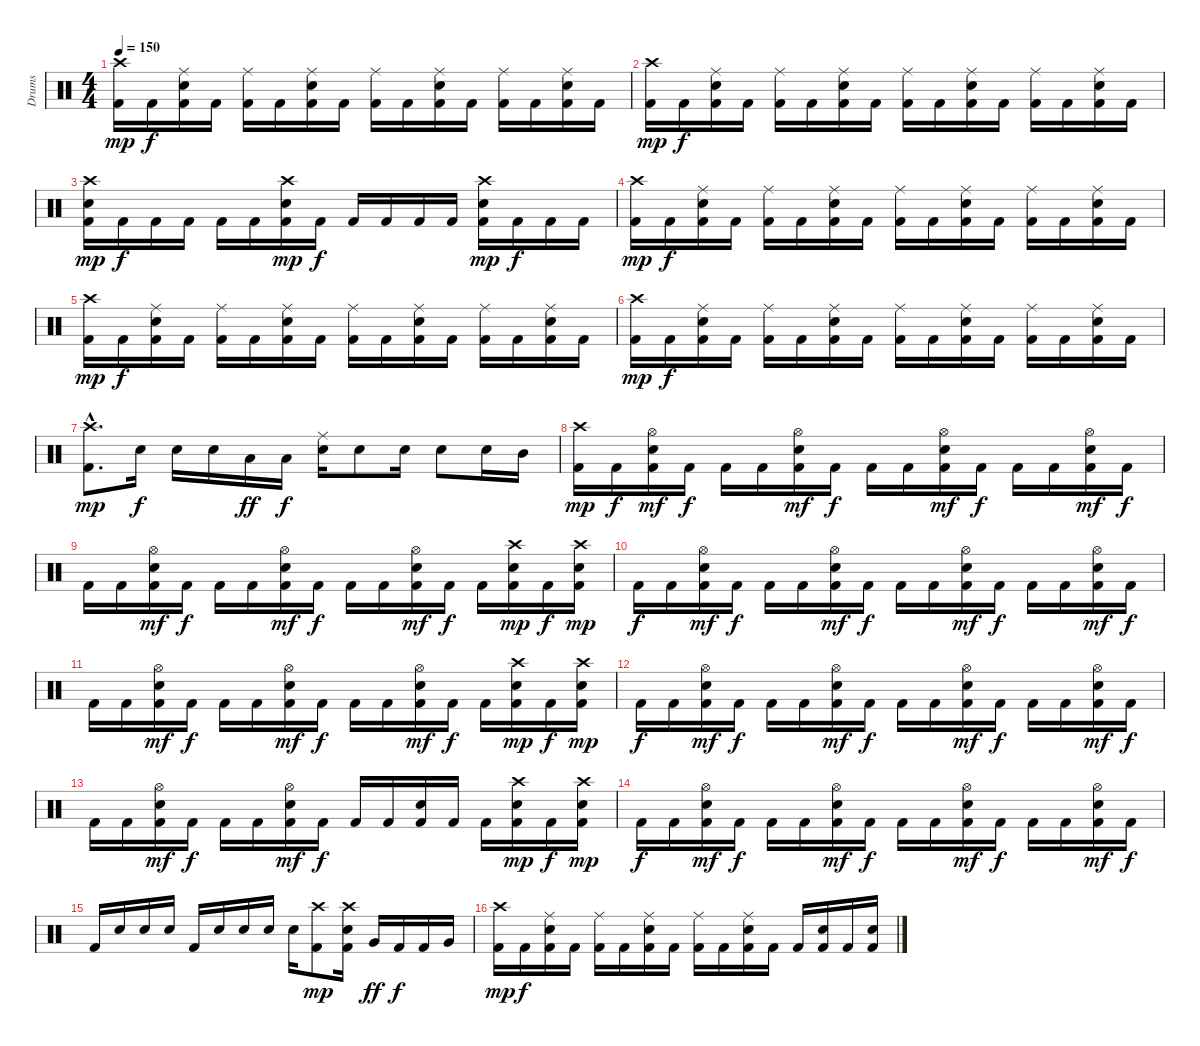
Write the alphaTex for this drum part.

\track ("Drums" "Drums") {instrument percussion}
\staff {score}
\articulation defaults
\ts (4 4)
\tempo 150
\clef neutral
\ks c
("Crash high (hit)" "Kick (hit) 2").16{dy mp} "Kick (hit) 2".16{dy f} ("Ride (middle)" "Electric Snare (hit)" "Kick (hit) 2").16 "Kick (hit) 2".16 ("Ride (middle)" "Kick (hit) 2").16 "Kick (hit) 2".16 ("Ride (middle)" "Electric Snare (hit)" "Kick (hit) 2").16 "Kick (hit) 2".16 ("Ride (middle)" "Kick (hit) 2").16 "Kick (hit) 2".16 ("Ride (middle)" "Electric Snare (hit)" "Kick (hit) 2").16 "Kick (hit) 2".16 ("Ride (middle)" "Kick (hit) 2").16 "Kick (hit) 2".16 ("Ride (middle)" "Electric Snare (hit)" "Kick (hit) 2").16 "Kick (hit) 2".16 |
("Crash high (hit)" "Kick (hit) 2").16{dy mp} "Kick (hit) 2".16{dy f} ("Ride (middle)" "Electric Snare (hit)" "Kick (hit) 2").16 "Kick (hit) 2".16 ("Ride (middle)" "Kick (hit) 2").16 "Kick (hit) 2".16 ("Ride (middle)" "Electric Snare (hit)" "Kick (hit) 2").16 "Kick (hit) 2".16 ("Ride (middle)" "Kick (hit) 2").16 "Kick (hit) 2".16 ("Ride (middle)" "Electric Snare (hit)" "Kick (hit) 2").16 "Kick (hit) 2".16 ("Ride (middle)" "Kick (hit) 2").16 "Kick (hit) 2".16 ("Ride (middle)" "Electric Snare (hit)" "Kick (hit) 2").16 "Kick (hit) 2".16 |
("Crash high (hit)" "Electric Snare (hit)" "Kick (hit) 2").16{dy mp} "Kick (hit) 2".16{dy f} "Kick (hit) 2".16 "Kick (hit) 2".16 "Kick (hit) 2".16 "Kick (hit) 2".16 ("Crash high (hit)" "Electric Snare (hit)" "Kick (hit) 2").16{dy mp} "Kick (hit) 2".16{dy f} "Kick (hit) 2".16 "Kick (hit) 2".16 "Kick (hit) 2".16 "Kick (hit) 2".16 ("Crash high (hit)" "Electric Snare (hit)" "Kick (hit) 2").16{dy mp} "Kick (hit) 2".16{dy f} "Kick (hit) 2".16 "Kick (hit) 2".16 |
("Crash high (hit)" "Kick (hit) 2").16{dy mp} "Kick (hit) 2".16{dy f} ("Ride (middle)" "Electric Snare (hit)" "Kick (hit) 2").16 "Kick (hit) 2".16 ("Ride (middle)" "Kick (hit) 2").16 "Kick (hit) 2".16 ("Ride (middle)" "Electric Snare (hit)" "Kick (hit) 2").16 "Kick (hit) 2".16 ("Ride (middle)" "Kick (hit) 2").16 "Kick (hit) 2".16 ("Ride (middle)" "Electric Snare (hit)" "Kick (hit) 2").16 "Kick (hit) 2".16 ("Ride (middle)" "Kick (hit) 2").16 "Kick (hit) 2".16 ("Ride (middle)" "Electric Snare (hit)" "Kick (hit) 2").16 "Kick (hit) 2".16 |
("Crash high (hit)" "Kick (hit) 2").16{dy mp} "Kick (hit) 2".16{dy f} ("Ride (middle)" "Electric Snare (hit)" "Kick (hit) 2").16 "Kick (hit) 2".16 ("Ride (middle)" "Kick (hit) 2").16 "Kick (hit) 2".16 ("Ride (middle)" "Electric Snare (hit)" "Kick (hit) 2").16 "Kick (hit) 2".16 ("Ride (middle)" "Kick (hit) 2").16 "Kick (hit) 2".16 ("Ride (middle)" "Electric Snare (hit)" "Kick (hit) 2").16 "Kick (hit) 2".16 ("Ride (middle)" "Kick (hit) 2").16 "Kick (hit) 2".16 ("Ride (middle)" "Electric Snare (hit)" "Kick (hit) 2").16 "Kick (hit) 2".16 |
("Crash high (hit)" "Kick (hit) 2").16{dy mp} "Kick (hit) 2".16{dy f} ("Ride (middle)" "Electric Snare (hit)" "Kick (hit) 2").16 "Kick (hit) 2".16 ("Ride (middle)" "Kick (hit) 2").16 "Kick (hit) 2".16 ("Ride (middle)" "Electric Snare (hit)" "Kick (hit) 2").16 "Kick (hit) 2".16 ("Ride (middle)" "Kick (hit) 2").16 "Kick (hit) 2".16 ("Ride (middle)" "Electric Snare (hit)" "Kick (hit) 2").16 "Kick (hit) 2".16 ("Ride (middle)" "Kick (hit) 2").16 "Kick (hit) 2".16 ("Ride (middle)" "Electric Snare (hit)" "Kick (hit) 2").16 "Kick (hit) 2".16 |
("Crash high (hit)"{hac} "Kick (hit) 2"{hac}).8{d dy mp} "Electric Snare (hit)".16{dy f} "Electric Snare (hit)".16 "Electric Snare (hit)".16 "Low Tom (hit)".16{dy ff} "Low Tom (hit)".16{dy f} ("Ride (middle)" "Electric Snare (hit)").16 "Electric Snare (hit)".8 "Electric Snare (hit)".16 "Electric Snare (hit)".8 "Electric Snare (hit)".16 "Mid Tom (hit)".16 |
("Crash high (hit)" "Kick (hit) 2").16{dy mp} "Kick (hit) 2".16{dy f} ("Hi-Hat (open)" "Electric Snare (hit)" "Kick (hit) 2").16{dy mf} "Kick (hit) 2".16{dy f} "Kick (hit) 2".16 "Kick (hit) 2".16 ("Hi-Hat (open)" "Electric Snare (hit)" "Kick (hit) 2").16{dy mf} "Kick (hit) 2".16{dy f} "Kick (hit) 2".16 "Kick (hit) 2".16 ("Hi-Hat (open)" "Electric Snare (hit)" "Kick (hit) 2").16{dy mf} "Kick (hit) 2".16{dy f} "Kick (hit) 2".16 "Kick (hit) 2".16 ("Hi-Hat (open)" "Electric Snare (hit)" "Kick (hit) 2").16{dy mf} "Kick (hit) 2".16{dy f} |
"Kick (hit) 2".16 "Kick (hit) 2".16 ("Hi-Hat (open)" "Electric Snare (hit)" "Kick (hit) 2").16{dy mf} "Kick (hit) 2".16{dy f} "Kick (hit) 2".16 "Kick (hit) 2".16 ("Hi-Hat (open)" "Electric Snare (hit)" "Kick (hit) 2").16{dy mf} "Kick (hit) 2".16{dy f} "Kick (hit) 2".16 "Kick (hit) 2".16 ("Hi-Hat (open)" "Electric Snare (hit)" "Kick (hit) 2").16{dy mf} "Kick (hit) 2".16{dy f} "Kick (hit) 2".16 ("Crash high (hit)" "Electric Snare (hit)" "Kick (hit) 2").16{dy mp} "Kick (hit) 2".16{dy f} ("Crash high (hit)" "Electric Snare (hit)" "Kick (hit) 2").16{dy mp} |
"Kick (hit) 2".16{dy f} "Kick (hit) 2".16 ("Hi-Hat (open)" "Electric Snare (hit)" "Kick (hit) 2").16{dy mf} "Kick (hit) 2".16{dy f} "Kick (hit) 2".16 "Kick (hit) 2".16 ("Hi-Hat (open)" "Electric Snare (hit)" "Kick (hit) 2").16{dy mf} "Kick (hit) 2".16{dy f} "Kick (hit) 2".16 "Kick (hit) 2".16 ("Hi-Hat (open)" "Electric Snare (hit)" "Kick (hit) 2").16{dy mf} "Kick (hit) 2".16{dy f} "Kick (hit) 2".16 "Kick (hit) 2".16 ("Hi-Hat (open)" "Electric Snare (hit)" "Kick (hit) 2").16{dy mf} "Kick (hit) 2".16{dy f} |
"Kick (hit) 2".16 "Kick (hit) 2".16 ("Hi-Hat (open)" "Electric Snare (hit)" "Kick (hit) 2").16{dy mf} "Kick (hit) 2".16{dy f} "Kick (hit) 2".16 "Kick (hit) 2".16 ("Hi-Hat (open)" "Electric Snare (hit)" "Kick (hit) 2").16{dy mf} "Kick (hit) 2".16{dy f} "Kick (hit) 2".16 "Kick (hit) 2".16 ("Hi-Hat (open)" "Electric Snare (hit)" "Kick (hit) 2").16{dy mf} "Kick (hit) 2".16{dy f} "Kick (hit) 2".16 ("Crash high (hit)" "Electric Snare (hit)" "Kick (hit) 2").16{dy mp} "Kick (hit) 2".16{dy f} ("Crash high (hit)" "Electric Snare (hit)" "Kick (hit) 2").16{dy mp} |
"Kick (hit) 2".16{dy f} "Kick (hit) 2".16 ("Hi-Hat (open)" "Electric Snare (hit)" "Kick (hit) 2").16{dy mf} "Kick (hit) 2".16{dy f} "Kick (hit) 2".16 "Kick (hit) 2".16 ("Hi-Hat (open)" "Electric Snare (hit)" "Kick (hit) 2").16{dy mf} "Kick (hit) 2".16{dy f} "Kick (hit) 2".16 "Kick (hit) 2".16 ("Hi-Hat (open)" "Electric Snare (hit)" "Kick (hit) 2").16{dy mf} "Kick (hit) 2".16{dy f} "Kick (hit) 2".16 "Kick (hit) 2".16 ("Hi-Hat (open)" "Electric Snare (hit)" "Kick (hit) 2").16{dy mf} "Kick (hit) 2".16{dy f} |
"Kick (hit) 2".16 "Kick (hit) 2".16 ("Hi-Hat (open)" "Electric Snare (hit)" "Kick (hit) 2").16{dy mf} "Kick (hit) 2".16{dy f} "Kick (hit) 2".16 "Kick (hit) 2".16 ("Hi-Hat (open)" "Electric Snare (hit)" "Kick (hit) 2").16{dy mf} "Kick (hit) 2".16{dy f} "Kick (hit) 2".16 "Kick (hit) 2".16 ("Electric Snare (hit)" "Kick (hit) 2").16 "Kick (hit) 2".16 "Kick (hit) 2".16 ("Crash high (hit)" "Electric Snare (hit)" "Kick (hit) 2").16{dy mp} "Kick (hit) 2".16{dy f} ("Crash high (hit)" "Electric Snare (hit)" "Kick (hit) 2").16{dy mp} |
"Kick (hit) 2".16{dy f} "Kick (hit) 2".16 ("Hi-Hat (open)" "Electric Snare (hit)" "Kick (hit) 2").16{dy mf} "Kick (hit) 2".16{dy f} "Kick (hit) 2".16 "Kick (hit) 2".16 ("Hi-Hat (open)" "Electric Snare (hit)" "Kick (hit) 2").16{dy mf} "Kick (hit) 2".16{dy f} "Kick (hit) 2".16 "Kick (hit) 2".16 ("Hi-Hat (open)" "Electric Snare (hit)" "Kick (hit) 2").16{dy mf} "Kick (hit) 2".16{dy f} "Kick (hit) 2".16 "Kick (hit) 2".16 ("Hi-Hat (open)" "Electric Snare (hit)" "Kick (hit) 2").16{dy mf} "Kick (hit) 2".16{dy f} |
"Kick (hit) 2".16 "Electric Snare (hit)".16 "Electric Snare (hit)".16 "Electric Snare (hit)".16 "Kick (hit) 2".16 "Electric Snare (hit)".16 "Electric Snare (hit)".16 "Electric Snare (hit)".16 "Electric Snare (hit)".16 ("Crash high (hit)" "Kick (hit) 2").8{dy mp} ("Crash high (hit)" "Electric Snare (hit)" "Kick (hit) 2").16 "Very Low Tom (hit)".16{dy ff} "Kick (hit) 2".16{dy f} "Kick (hit) 2".16 "Very Low Tom (hit)".16 |
("Crash high (hit)" "Kick (hit) 2").16{dy mp} "Kick (hit) 2".16{dy f} ("Ride (middle)" "Electric Snare (hit)" "Kick (hit) 2").16 "Kick (hit) 2".16 ("Ride (middle)" "Kick (hit) 2").16 "Kick (hit) 2".16 ("Ride (middle)" "Electric Snare (hit)" "Kick (hit) 2").16 "Kick (hit) 2".16 ("Ride (middle)" "Kick (hit) 2").16 "Kick (hit) 2".16 ("Ride (middle)" "Electric Snare (hit)" "Kick (hit) 2").16 "Kick (hit) 2".16 "Kick (hit) 2".16 ("Electric Snare (hit)" "Kick (hit) 2").16 "Kick (hit) 2".16 ("Electric Snare (hit)" "Kick (hit) 2").16
